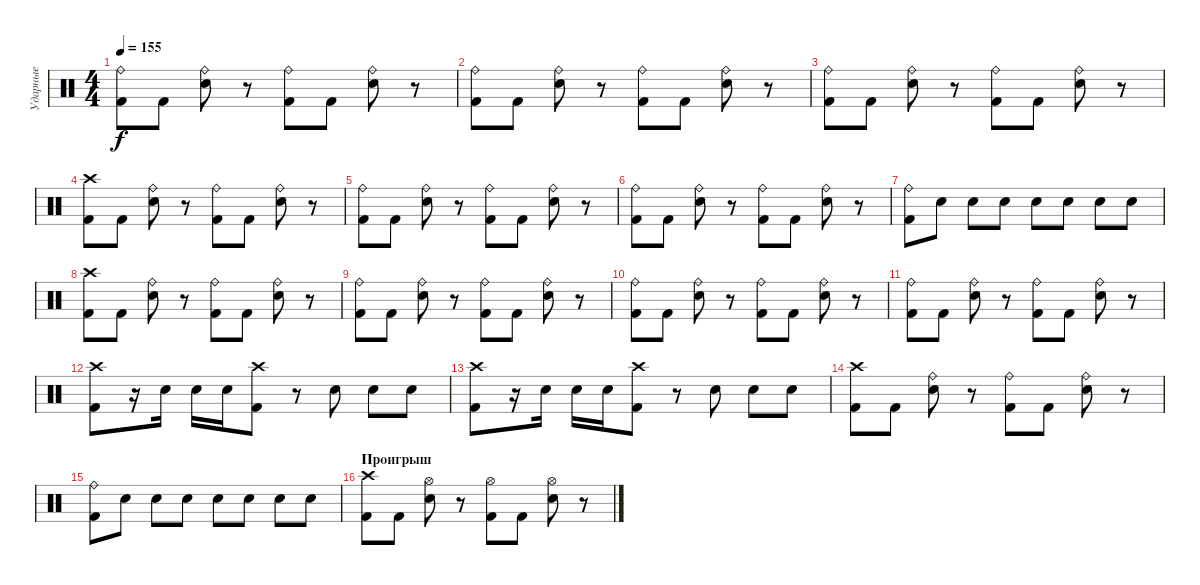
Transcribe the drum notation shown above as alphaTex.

\track ("Ударные" "Ударные") {instrument percussion}
\staff {score}
\articulation defaults
\ts (4 4)
\tempo 155
\clef neutral
\ks c
("Ride (bell)" "Kick (hit) 2").8{dy f} "Kick (hit) 2".8 ("Ride (bell)" "Snare (hit) 2").8 r.8 ("Ride (bell)" "Kick (hit) 2").8 "Kick (hit) 2".8 ("Ride (bell)" "Snare (hit) 2").8 r.8 |
("Ride (bell)" "Kick (hit) 2").8 "Kick (hit) 2".8 ("Ride (bell)" "Snare (hit) 2").8 r.8 ("Ride (bell)" "Kick (hit) 2").8 "Kick (hit) 2".8 ("Ride (bell)" "Snare (hit) 2").8 r.8 |
("Ride (bell)" "Kick (hit) 2").8 "Kick (hit) 2".8 ("Ride (bell)" "Snare (hit) 2").8 r.8 ("Ride (bell)" "Kick (hit) 2").8 "Kick (hit) 2".8 ("Ride (bell)" "Snare (hit) 2").8 r.8 |
("Crash high (hit)" "Kick (hit) 2").8 "Kick (hit) 2".8 ("Ride (bell)" "Snare (hit) 2").8 r.8 ("Ride (bell)" "Kick (hit) 2").8 "Kick (hit) 2".8 ("Ride (bell)" "Snare (hit) 2").8 r.8 |
("Ride (bell)" "Kick (hit) 2").8 "Kick (hit) 2".8 ("Ride (bell)" "Snare (hit) 2").8 r.8 ("Ride (bell)" "Kick (hit) 2").8 "Kick (hit) 2".8 ("Ride (bell)" "Snare (hit) 2").8 r.8 |
("Ride (bell)" "Kick (hit) 2").8 "Kick (hit) 2".8 ("Ride (bell)" "Snare (hit) 2").8 r.8 ("Ride (bell)" "Kick (hit) 2").8 "Kick (hit) 2".8 ("Ride (bell)" "Snare (hit) 2").8 r.8 |
("Ride (bell)" "Kick (hit) 2").8 "Snare (hit) 2".8 "Snare (hit) 2".8 "Snare (hit) 2".8 "Snare (hit) 2".8 "Snare (hit) 2".8 "Snare (hit) 2".8 "Snare (hit) 2".8 |
("Crash high (hit)" "Kick (hit) 2").8 "Kick (hit) 2".8 ("Ride (bell)" "Snare (hit) 2").8 r.8 ("Ride (bell)" "Kick (hit) 2").8 "Kick (hit) 2".8 ("Ride (bell)" "Snare (hit) 2").8 r.8 |
("Ride (bell)" "Kick (hit) 2").8 "Kick (hit) 2".8 ("Ride (bell)" "Snare (hit) 2").8 r.8 ("Ride (bell)" "Kick (hit) 2").8 "Kick (hit) 2".8 ("Ride (bell)" "Snare (hit) 2").8 r.8 |
("Ride (bell)" "Kick (hit) 2").8 "Kick (hit) 2".8 ("Ride (bell)" "Snare (hit) 2").8 r.8 ("Ride (bell)" "Kick (hit) 2").8 "Kick (hit) 2".8 ("Ride (bell)" "Snare (hit) 2").8 r.8 |
("Ride (bell)" "Kick (hit) 2").8 "Kick (hit) 2".8 ("Ride (bell)" "Snare (hit) 2").8 r.8 ("Ride (bell)" "Kick (hit) 2").8 "Kick (hit) 2".8 ("Ride (bell)" "Snare (hit) 2").8 r.8 |
("Crash high (hit)" "Kick (hit) 2").8 r.16 "Snare (hit) 2".16 "Snare (hit) 2".16 "Snare (hit) 2".16 ("Crash high (hit)" "Kick (hit) 2").8 r.8 "Snare (hit) 2".8 "Snare (hit) 2".8 "Snare (hit) 2".8 |
("Crash high (hit)" "Kick (hit) 2").8 r.16 "Snare (hit) 2".16 "Snare (hit) 2".16 "Snare (hit) 2".16 ("Crash high (hit)" "Kick (hit) 2").8 r.8 "Snare (hit) 2".8 "Snare (hit) 2".8 "Snare (hit) 2".8 |
("Crash high (hit)" "Kick (hit) 2").8 "Kick (hit) 2".8 ("Ride (bell)" "Snare (hit) 2").8 r.8 ("Ride (bell)" "Kick (hit) 2").8 "Kick (hit) 2".8 ("Ride (bell)" "Snare (hit) 2").8 r.8 |
\section ("" "")
("Ride (bell)" "Kick (hit) 2").8 "Snare (hit) 2".8 "Snare (hit) 2".8 "Snare (hit) 2".8 "Snare (hit) 2".8 "Snare (hit) 2".8 "Snare (hit) 2".8 "Snare (hit) 2".8 |
\section ("" "Проигрыш")
("Crash high (hit)" "Kick (hit) 2").8 "Kick (hit) 2".8 ("Hi-Hat (open)" "Snare (hit) 2").8 r.8 ("Hi-Hat (open)" "Kick (hit) 2").8 "Kick (hit) 2".8 ("Hi-Hat (open)" "Snare (hit) 2").8 r.8
